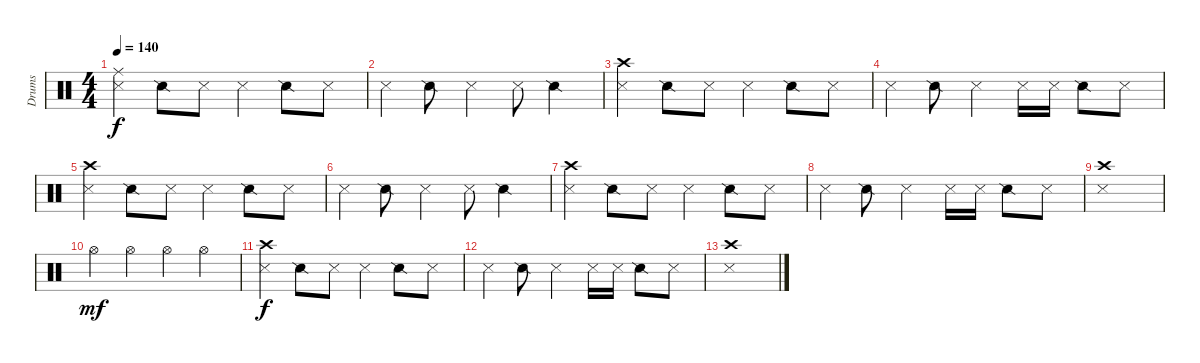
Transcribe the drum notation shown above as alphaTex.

\track ("Drums" "Drums") {instrument percussion}
\staff {score}
\articulation defaults
\ts (4 4)
\tempo 140
\clef neutral
\ks c
("Ride (middle)" "Metronome (hit)").4{dy f} "Snare (side stick) 2".8 "Metronome (hit)".8 "Metronome (hit)".4 "Snare (side stick) 2".8 "Metronome (hit)".8 |
"Metronome (hit)".4 "Snare (side stick) 2".8 "Metronome (hit)".4 "Metronome (hit)".8 "Snare (side stick) 2".4 |
("Crash high (hit)" "Metronome (hit)").4 "Snare (side stick) 2".8 "Metronome (hit)".8 "Metronome (hit)".4 "Snare (side stick) 2".8 "Metronome (hit)".8 |
"Metronome (hit)".4 "Snare (side stick) 2".8 "Metronome (hit)".4 "Metronome (hit)".16 "Metronome (hit)".16 "Snare (side stick) 2".8 "Metronome (hit)".8 |
("Crash high (hit)" "Metronome (hit)").4 "Snare (side stick) 2".8 "Metronome (hit)".8 "Metronome (hit)".4 "Snare (side stick) 2".8 "Metronome (hit)".8 |
"Metronome (hit)".4 "Snare (side stick) 2".8 "Metronome (hit)".4 "Metronome (hit)".8 "Snare (side stick) 2".4 |
("Crash high (hit)" "Metronome (hit)").4 "Snare (side stick) 2".8 "Metronome (hit)".8 "Metronome (hit)".4 "Snare (side stick) 2".8 "Metronome (hit)".8 |
"Metronome (hit)".4 "Snare (side stick) 2".8 "Metronome (hit)".4 "Metronome (hit)".16 "Metronome (hit)".16 "Snare (side stick) 2".8 "Metronome (hit)".8 |
("Crash high (hit)" "Metronome (hit)").1 |
"Hi-Hat (open)".4{dy mf} "Hi-Hat (open)".4 "Hi-Hat (open)".4 "Hi-Hat (open)".4 |
("Crash high (hit)" "Metronome (hit)").4{dy f} "Snare (side stick) 2".8 "Metronome (hit)".8 "Metronome (hit)".4 "Snare (side stick) 2".8 "Metronome (hit)".8 |
"Metronome (hit)".4 "Snare (side stick) 2".8 "Metronome (hit)".4 "Metronome (hit)".16 "Metronome (hit)".16 "Snare (side stick) 2".8 "Metronome (hit)".8 |
("Crash high (hit)" "Metronome (hit)").1
